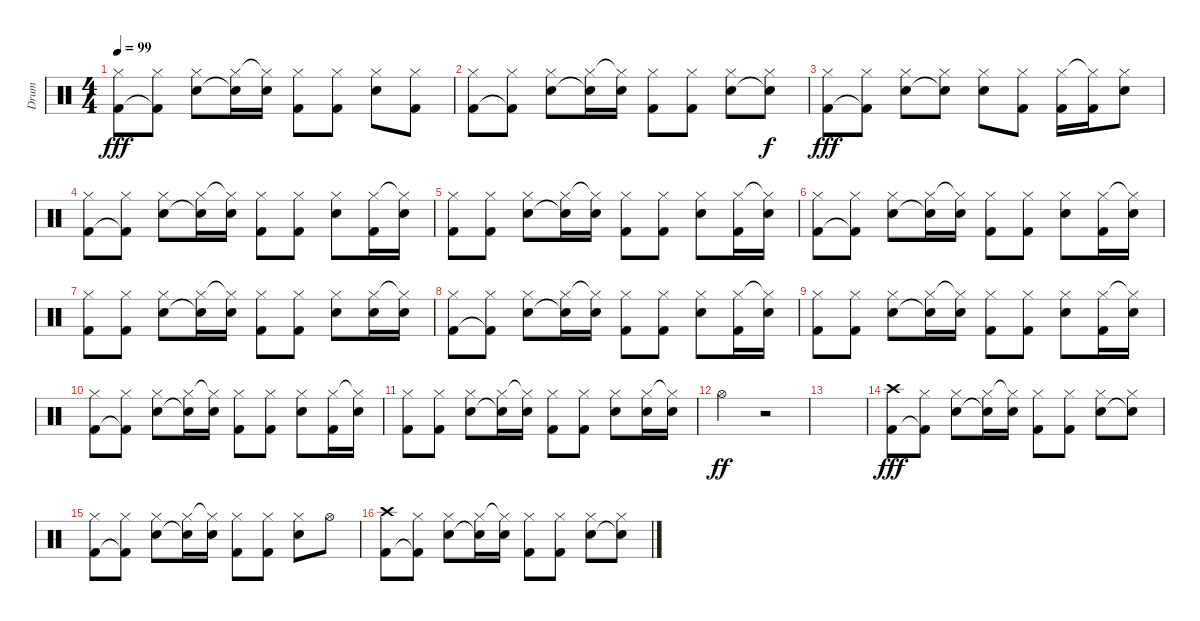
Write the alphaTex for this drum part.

\track ("Drum" "Drum") {instrument percussion}
\staff {score}
\articulation defaults
\ts (4 4)
\tempo 99
\clef neutral
\ks c
("Hi-Hat (closed)" "Kick (hit) 2").8{dy fff} ("Hi-Hat (closed)" "Kick (hit) 2"{t}).8 ("Hi-Hat (closed)" "Electric Snare (hit)").8 ("Hi-Hat (closed)" "Electric Snare (hit)"{t}).16 ("Hi-Hat (closed)"{t} "Electric Snare (hit)").16 ("Hi-Hat (closed)" "Kick (hit) 2").8 ("Hi-Hat (closed)" "Kick (hit) 2").8 ("Hi-Hat (closed)" "Electric Snare (hit)").8 ("Hi-Hat (closed)" "Kick (hit) 2").8 |
("Hi-Hat (closed)" "Kick (hit) 2").8 ("Hi-Hat (closed)" "Kick (hit) 2"{t}).8 ("Hi-Hat (closed)" "Electric Snare (hit)").8 ("Hi-Hat (closed)" "Electric Snare (hit)"{t}).16 ("Hi-Hat (closed)"{t} "Electric Snare (hit)").16 ("Hi-Hat (closed)" "Kick (hit) 2").8 ("Hi-Hat (closed)" "Kick (hit) 2").8 ("Hi-Hat (closed)" "Electric Snare (hit)").8 ("Hi-Hat (closed)" "Electric Snare (hit)"{t}).8{dy f} |
("Hi-Hat (closed)" "Kick (hit) 2").8{dy fff} ("Hi-Hat (closed)" "Kick (hit) 2"{t}).8 ("Hi-Hat (closed)" "Electric Snare (hit)").8 ("Hi-Hat (closed)" "Electric Snare (hit)"{t}).8 ("Hi-Hat (closed)" "Electric Snare (hit)").8 ("Hi-Hat (closed)" "Kick (hit) 2").8 ("Hi-Hat (closed)" "Kick (hit) 2").16 ("Hi-Hat (closed)"{t} "Kick (hit) 2").16 ("Hi-Hat (closed)" "Electric Snare (hit)").8 |
("Hi-Hat (closed)" "Kick (hit) 2").8 ("Hi-Hat (closed)" "Kick (hit) 2"{t}).8 ("Hi-Hat (closed)" "Electric Snare (hit)").8 ("Hi-Hat (closed)" "Electric Snare (hit)"{t}).16 ("Hi-Hat (closed)"{t} "Electric Snare (hit)").16 ("Hi-Hat (closed)" "Kick (hit) 2").8 ("Hi-Hat (closed)" "Kick (hit) 2").8 ("Hi-Hat (closed)" "Electric Snare (hit)").8 ("Hi-Hat (closed)" "Kick (hit) 2").16 ("Hi-Hat (closed)"{t} "Electric Snare (hit)").16 |
("Hi-Hat (closed)" "Kick (hit) 2").8 ("Hi-Hat (closed)" "Kick (hit) 2").8 ("Hi-Hat (closed)" "Electric Snare (hit)").8 ("Hi-Hat (closed)" "Electric Snare (hit)"{t}).16 ("Hi-Hat (closed)"{t} "Electric Snare (hit)").16 ("Hi-Hat (closed)" "Kick (hit) 2").8 ("Hi-Hat (closed)" "Kick (hit) 2").8 ("Hi-Hat (closed)" "Electric Snare (hit)").8 ("Hi-Hat (closed)" "Kick (hit) 2").16 ("Hi-Hat (closed)"{t} "Electric Snare (hit)").16 |
("Hi-Hat (closed)" "Kick (hit) 2").8 ("Hi-Hat (closed)" "Kick (hit) 2"{t}).8 ("Hi-Hat (closed)" "Electric Snare (hit)").8 ("Hi-Hat (closed)" "Electric Snare (hit)"{t}).16 ("Hi-Hat (closed)"{t} "Electric Snare (hit)").16 ("Hi-Hat (closed)" "Kick (hit) 2").8 ("Hi-Hat (closed)" "Kick (hit) 2").8 ("Hi-Hat (closed)" "Electric Snare (hit)").8 ("Hi-Hat (closed)" "Kick (hit) 2").16 ("Hi-Hat (closed)"{t} "Electric Snare (hit)").16 |
("Hi-Hat (closed)" "Kick (hit) 2").8 ("Hi-Hat (closed)" "Kick (hit) 2").8 ("Hi-Hat (closed)" "Electric Snare (hit)").8 ("Hi-Hat (closed)" "Electric Snare (hit)"{t}).16 ("Hi-Hat (closed)"{t} "Electric Snare (hit)").16 ("Hi-Hat (closed)" "Kick (hit) 2").8 ("Hi-Hat (closed)" "Kick (hit) 2").8 ("Hi-Hat (closed)" "Electric Snare (hit)").8 ("Hi-Hat (closed)" "Electric Snare (hit)").16 ("Hi-Hat (closed)"{t} "Electric Snare (hit)").16 |
("Hi-Hat (closed)" "Kick (hit) 2").8 ("Hi-Hat (closed)" "Kick (hit) 2"{t}).8 ("Hi-Hat (closed)" "Electric Snare (hit)").8 ("Hi-Hat (closed)" "Electric Snare (hit)"{t}).16 ("Hi-Hat (closed)"{t} "Electric Snare (hit)").16 ("Hi-Hat (closed)" "Kick (hit) 2").8 ("Hi-Hat (closed)" "Kick (hit) 2").8 ("Hi-Hat (closed)" "Electric Snare (hit)").8 ("Hi-Hat (closed)" "Kick (hit) 2").16 ("Hi-Hat (closed)"{t} "Electric Snare (hit)").16 |
("Hi-Hat (closed)" "Kick (hit) 2").8 ("Hi-Hat (closed)" "Kick (hit) 2").8 ("Hi-Hat (closed)" "Electric Snare (hit)").8 ("Hi-Hat (closed)" "Electric Snare (hit)"{t}).16 ("Hi-Hat (closed)"{t} "Electric Snare (hit)").16 ("Hi-Hat (closed)" "Kick (hit) 2").8 ("Hi-Hat (closed)" "Kick (hit) 2").8 ("Hi-Hat (closed)" "Electric Snare (hit)").8 ("Hi-Hat (closed)" "Kick (hit) 2").16 ("Hi-Hat (closed)"{t} "Electric Snare (hit)").16 |
("Hi-Hat (closed)" "Kick (hit) 2").8 ("Hi-Hat (closed)" "Kick (hit) 2"{t}).8 ("Hi-Hat (closed)" "Electric Snare (hit)").8 ("Hi-Hat (closed)" "Electric Snare (hit)"{t}).16 ("Hi-Hat (closed)"{t} "Electric Snare (hit)").16 ("Hi-Hat (closed)" "Kick (hit) 2").8 ("Hi-Hat (closed)" "Kick (hit) 2").8 ("Hi-Hat (closed)" "Electric Snare (hit)").8 ("Hi-Hat (closed)" "Kick (hit) 2").16 ("Hi-Hat (closed)"{t} "Electric Snare (hit)").16 |
("Hi-Hat (closed)" "Kick (hit) 2").8 ("Hi-Hat (closed)" "Kick (hit) 2").8 ("Hi-Hat (closed)" "Electric Snare (hit)").8 ("Hi-Hat (closed)" "Electric Snare (hit)"{t}).16 ("Hi-Hat (closed)"{t} "Electric Snare (hit)").16 ("Hi-Hat (closed)" "Kick (hit) 2").8 ("Hi-Hat (closed)" "Kick (hit) 2").8 ("Hi-Hat (closed)" "Electric Snare (hit)").8 ("Hi-Hat (closed)" "Electric Snare (hit)").16 ("Hi-Hat (closed)"{t} "Electric Snare (hit)").16 |
"Hi-Hat (open)".2{dy ff} r.2 |
|
("Crash high (hit)" "Kick (hit) 2").8{dy fff} ("Hi-Hat (closed)" "Kick (hit) 2"{t}).8 ("Hi-Hat (closed)" "Electric Snare (hit)").8 ("Hi-Hat (closed)" "Electric Snare (hit)"{t}).16 ("Hi-Hat (closed)"{t} "Electric Snare (hit)").16 ("Hi-Hat (closed)" "Kick (hit) 2").8 ("Hi-Hat (closed)" "Kick (hit) 2").8 ("Hi-Hat (closed)" "Electric Snare (hit)").8 ("Hi-Hat (closed)" "Electric Snare (hit)"{t}).8 |
("Hi-Hat (closed)" "Kick (hit) 2").8 ("Hi-Hat (closed)" "Kick (hit) 2"{t}).8 ("Hi-Hat (closed)" "Electric Snare (hit)").8 ("Hi-Hat (closed)" "Electric Snare (hit)"{t}).16 ("Hi-Hat (closed)"{t} "Electric Snare (hit)").16 ("Hi-Hat (closed)" "Kick (hit) 2").8 ("Hi-Hat (closed)" "Kick (hit) 2").8 ("Hi-Hat (closed)" "Electric Snare (hit)").8 "Hi-Hat (open)".8 |
("Crash high (hit)" "Kick (hit) 2").8 ("Hi-Hat (closed)" "Kick (hit) 2"{t}).8 ("Hi-Hat (closed)" "Electric Snare (hit)").8 ("Hi-Hat (closed)" "Electric Snare (hit)"{t}).16 ("Hi-Hat (closed)"{t} "Electric Snare (hit)").16 ("Hi-Hat (closed)" "Kick (hit) 2").8 ("Hi-Hat (closed)" "Kick (hit) 2").8 ("Hi-Hat (closed)" "Electric Snare (hit)").8 ("Hi-Hat (closed)" "Electric Snare (hit)"{t}).8
